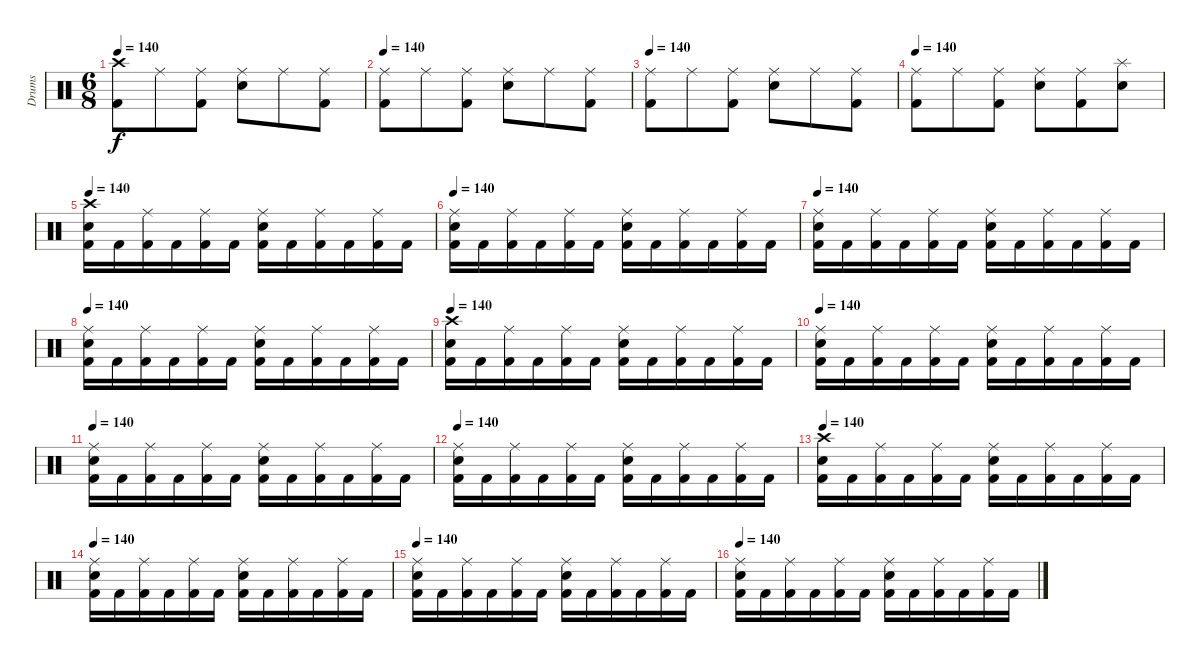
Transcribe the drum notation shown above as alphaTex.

\track ("Drums" "Drums") {instrument percussion}
\staff {score}
\articulation defaults
\ts (6 8)
\tempo 140
\clef neutral
\ks c
("Kick (hit) 2" "Crash high (hit)").8{dy f} "Ride (middle)".8 ("Kick (hit) 2" "Ride (middle)").8 ("Electric Snare (hit)" "Ride (middle)").8 "Ride (middle)".8 ("Kick (hit) 2" "Ride (middle)").8 |
\tempo 140
("Kick (hit) 2" "Ride (middle)").8 "Ride (middle)".8 ("Kick (hit) 2" "Ride (middle)").8 ("Electric Snare (hit)" "Ride (middle)").8 "Ride (middle)".8 ("Kick (hit) 2" "Ride (middle)").8 |
\tempo 140
("Kick (hit) 2" "Ride (middle)").8 "Ride (middle)".8 ("Kick (hit) 2" "Ride (middle)").8 ("Electric Snare (hit)" "Ride (middle)").8 "Ride (middle)".8 ("Kick (hit) 2" "Ride (middle)").8 |
\tempo 140
("Kick (hit) 2" "Ride (middle)").8 "Ride (middle)".8 ("Kick (hit) 2" "Ride (middle)").8 ("Electric Snare (hit)" "Ride (middle)").8 ("Kick (hit) 2" "Ride (middle)").8 ("Electric Snare (hit)" "Splash (hit)").8 |
\tempo 140
("Kick (hit) 2" "Electric Snare (hit)" "Crash high (hit)").16 "Kick (hit) 2".16 ("Kick (hit) 2" "Ride (middle)").16 "Kick (hit) 2".16 ("Kick (hit) 2" "Ride (middle)").16 "Kick (hit) 2".16 ("Kick (hit) 2" "Electric Snare (hit)" "Ride (middle)").16 "Kick (hit) 2".16 ("Kick (hit) 2" "Ride (middle)").16 "Kick (hit) 2".16 ("Kick (hit) 2" "Ride (middle)").16 "Kick (hit) 2".16 |
\tempo 140
("Kick (hit) 2" "Electric Snare (hit)" "Ride (middle)").16 "Kick (hit) 2".16 ("Kick (hit) 2" "Ride (middle)").16 "Kick (hit) 2".16 ("Kick (hit) 2" "Ride (middle)").16 "Kick (hit) 2".16 ("Kick (hit) 2" "Electric Snare (hit)" "Ride (middle)").16 "Kick (hit) 2".16 ("Kick (hit) 2" "Ride (middle)").16 "Kick (hit) 2".16 ("Kick (hit) 2" "Ride (middle)").16 "Kick (hit) 2".16 |
\tempo 140
("Kick (hit) 2" "Electric Snare (hit)" "Ride (middle)").16 "Kick (hit) 2".16 ("Kick (hit) 2" "Ride (middle)").16 "Kick (hit) 2".16 ("Kick (hit) 2" "Ride (middle)").16 "Kick (hit) 2".16 ("Kick (hit) 2" "Electric Snare (hit)" "Ride (middle)").16 "Kick (hit) 2".16 ("Kick (hit) 2" "Ride (middle)").16 "Kick (hit) 2".16 ("Kick (hit) 2" "Ride (middle)").16 "Kick (hit) 2".16 |
\tempo 140
("Kick (hit) 2" "Electric Snare (hit)" "Ride (middle)").16 "Kick (hit) 2".16 ("Kick (hit) 2" "Ride (middle)").16 "Kick (hit) 2".16 ("Kick (hit) 2" "Ride (middle)").16 "Kick (hit) 2".16 ("Kick (hit) 2" "Electric Snare (hit)" "Ride (middle)").16 "Kick (hit) 2".16 ("Kick (hit) 2" "Ride (middle)").16 "Kick (hit) 2".16 ("Kick (hit) 2" "Ride (middle)").16 "Kick (hit) 2".16 |
\tempo 140
("Kick (hit) 2" "Electric Snare (hit)" "Crash high (hit)").16 "Kick (hit) 2".16 ("Kick (hit) 2" "Ride (middle)").16 "Kick (hit) 2".16 ("Kick (hit) 2" "Ride (middle)").16 "Kick (hit) 2".16 ("Kick (hit) 2" "Electric Snare (hit)" "Ride (middle)").16 "Kick (hit) 2".16 ("Kick (hit) 2" "Ride (middle)").16 "Kick (hit) 2".16 ("Kick (hit) 2" "Ride (middle)").16 "Kick (hit) 2".16 |
\tempo 140
("Kick (hit) 2" "Electric Snare (hit)" "Ride (middle)").16 "Kick (hit) 2".16 ("Kick (hit) 2" "Ride (middle)").16 "Kick (hit) 2".16 ("Kick (hit) 2" "Ride (middle)").16 "Kick (hit) 2".16 ("Kick (hit) 2" "Electric Snare (hit)" "Ride (middle)").16 "Kick (hit) 2".16 ("Kick (hit) 2" "Ride (middle)").16 "Kick (hit) 2".16 ("Kick (hit) 2" "Ride (middle)").16 "Kick (hit) 2".16 |
\tempo 140
("Kick (hit) 2" "Electric Snare (hit)" "Ride (middle)").16 "Kick (hit) 2".16 ("Kick (hit) 2" "Ride (middle)").16 "Kick (hit) 2".16 ("Kick (hit) 2" "Ride (middle)").16 "Kick (hit) 2".16 ("Kick (hit) 2" "Electric Snare (hit)" "Ride (middle)").16 "Kick (hit) 2".16 ("Kick (hit) 2" "Ride (middle)").16 "Kick (hit) 2".16 ("Kick (hit) 2" "Ride (middle)").16 "Kick (hit) 2".16 |
\tempo 140
("Kick (hit) 2" "Electric Snare (hit)" "Ride (middle)").16 "Kick (hit) 2".16 ("Kick (hit) 2" "Ride (middle)").16 "Kick (hit) 2".16 ("Kick (hit) 2" "Ride (middle)").16 "Kick (hit) 2".16 ("Kick (hit) 2" "Electric Snare (hit)" "Ride (middle)").16 "Kick (hit) 2".16 ("Kick (hit) 2" "Ride (middle)").16 "Kick (hit) 2".16 ("Kick (hit) 2" "Ride (middle)").16 "Kick (hit) 2".16 |
\tempo 140
("Kick (hit) 2" "Electric Snare (hit)" "Crash high (hit)").16 "Kick (hit) 2".16 ("Kick (hit) 2" "Ride (middle)").16 "Kick (hit) 2".16 ("Kick (hit) 2" "Ride (middle)").16 "Kick (hit) 2".16 ("Kick (hit) 2" "Electric Snare (hit)" "Ride (middle)").16 "Kick (hit) 2".16 ("Kick (hit) 2" "Ride (middle)").16 "Kick (hit) 2".16 ("Kick (hit) 2" "Ride (middle)").16 "Kick (hit) 2".16 |
\tempo 140
("Kick (hit) 2" "Electric Snare (hit)" "Ride (middle)").16 "Kick (hit) 2".16 ("Kick (hit) 2" "Ride (middle)").16 "Kick (hit) 2".16 ("Kick (hit) 2" "Ride (middle)").16 "Kick (hit) 2".16 ("Kick (hit) 2" "Electric Snare (hit)" "Ride (middle)").16 "Kick (hit) 2".16 ("Kick (hit) 2" "Ride (middle)").16 "Kick (hit) 2".16 ("Kick (hit) 2" "Ride (middle)").16 "Kick (hit) 2".16 |
\tempo 140
("Kick (hit) 2" "Electric Snare (hit)" "Ride (middle)").16 "Kick (hit) 2".16 ("Kick (hit) 2" "Ride (middle)").16 "Kick (hit) 2".16 ("Kick (hit) 2" "Ride (middle)").16 "Kick (hit) 2".16 ("Kick (hit) 2" "Electric Snare (hit)" "Ride (middle)").16 "Kick (hit) 2".16 ("Kick (hit) 2" "Ride (middle)").16 "Kick (hit) 2".16 ("Kick (hit) 2" "Ride (middle)").16 "Kick (hit) 2".16 |
\tempo 140
("Kick (hit) 2" "Electric Snare (hit)" "Ride (middle)").16 "Kick (hit) 2".16 ("Kick (hit) 2" "Ride (middle)").16 "Kick (hit) 2".16 ("Kick (hit) 2" "Ride (middle)").16 "Kick (hit) 2".16 ("Kick (hit) 2" "Electric Snare (hit)" "Ride (middle)").16 "Kick (hit) 2".16 ("Kick (hit) 2" "Ride (middle)").16 "Kick (hit) 2".16 ("Kick (hit) 2" "Ride (middle)").16 "Kick (hit) 2".16
